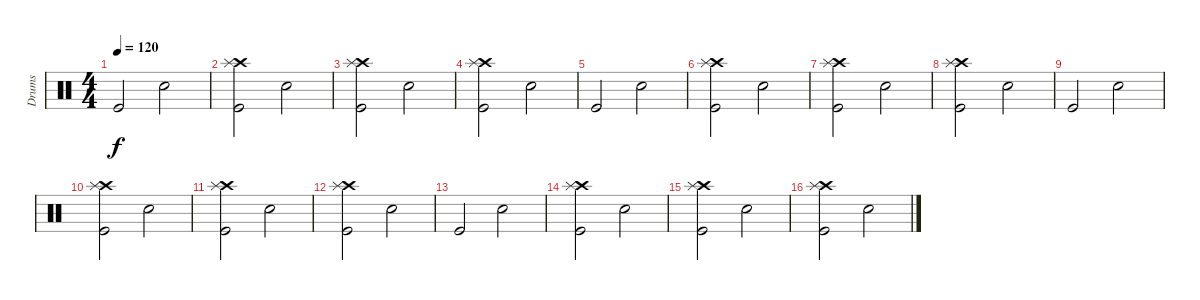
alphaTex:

\track ("Drums" "Drums") {instrument percussion}
\staff {score}
\articulation defaults
\ts (4 4)
\tempo 120
\clef neutral
\ks c "Kick (hit)".2{dy f} "Snare (hit) 2".2
|
("Crash high (hit)" "Splash (hit)" "Kick (hit)").2 "Snare (hit) 2".2 |
("Crash high (hit)" "Splash (hit)" "Kick (hit)").2 "Snare (hit) 2".2 |
("Crash high (hit)" "Splash (hit)" "Kick (hit)").2 "Snare (hit) 2".2 |
"Kick (hit)".2 "Snare (hit) 2".2 |
("Crash high (hit)" "Splash (hit)" "Kick (hit)").2 "Snare (hit) 2".2 |
("Crash high (hit)" "Splash (hit)" "Kick (hit)").2 "Snare (hit) 2".2 |
("Crash high (hit)" "Splash (hit)" "Kick (hit)").2 "Snare (hit) 2".2 |
"Kick (hit)".2 "Snare (hit) 2".2 |
("Crash high (hit)" "Splash (hit)" "Kick (hit)").2 "Snare (hit) 2".2 |
("Crash high (hit)" "Splash (hit)" "Kick (hit)").2 "Snare (hit) 2".2 |
("Crash high (hit)" "Splash (hit)" "Kick (hit)").2 "Snare (hit) 2".2 |
"Kick (hit)".2 "Snare (hit) 2".2 |
("Crash high (hit)" "Splash (hit)" "Kick (hit)").2 "Snare (hit) 2".2 |
("Crash high (hit)" "Splash (hit)" "Kick (hit)").2 "Snare (hit) 2".2 |
("Crash high (hit)" "Splash (hit)" "Kick (hit)").2 "Snare (hit) 2".2
